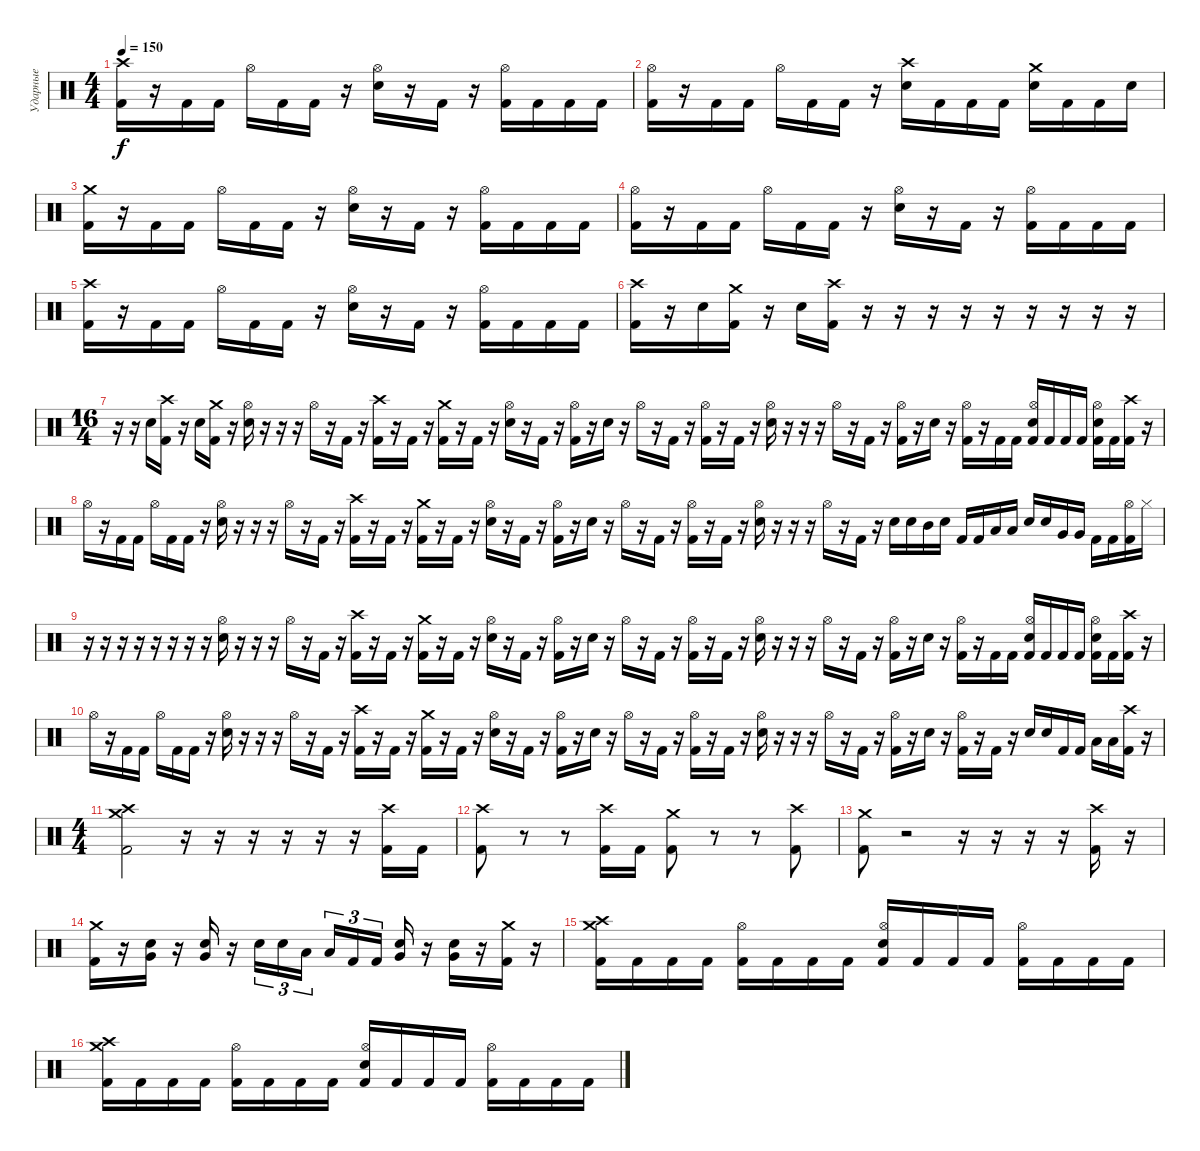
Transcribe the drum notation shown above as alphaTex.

\track ("Ударные" "Ударные") {instrument percussion}
\staff {score}
\articulation defaults
\ts (4 4)
\tempo 150
\clef neutral
\ks c
("Kick (hit) 2" "Crash high (hit)").16{dy f} r.16 "Kick (hit) 2".16 "Kick (hit) 2".16 "Hi-Hat (open)".16 "Kick (hit) 2".16 "Kick (hit) 2".16 r.16 ("Electric Snare (hit)" "Hi-Hat (open)").16 r.16 "Kick (hit) 2".16 r.16 ("Kick (hit) 2" "Hi-Hat (open)").16 "Kick (hit) 2".16 "Kick (hit) 2".16 "Kick (hit) 2".16 |
("Kick (hit) 2" "Hi-Hat (open)").16 r.16 "Kick (hit) 2".16 "Kick (hit) 2".16 "Hi-Hat (open)".16 "Kick (hit) 2".16 "Kick (hit) 2".16 r.16 ("Electric Snare (hit)" "Crash high (hit)").16 "Kick (hit) 2".16 "Kick (hit) 2".16 "Kick (hit) 2".16 ("Electric Snare (hit)" "Crash medium (hit)").16 "Kick (hit) 2".16 "Kick (hit) 2".16 "Electric Snare (hit)".16 |
("Kick (hit) 2" "Crash medium (hit)").16 r.16 "Kick (hit) 2".16 "Kick (hit) 2".16 "Hi-Hat (open)".16 "Kick (hit) 2".16 "Kick (hit) 2".16 r.16 ("Electric Snare (hit)" "Hi-Hat (open)").16 r.16 "Kick (hit) 2".16 r.16 ("Kick (hit) 2" "Hi-Hat (open)").16 "Kick (hit) 2".16 "Kick (hit) 2".16 "Kick (hit) 2".16 |
("Kick (hit) 2" "Hi-Hat (open)").16 r.16 "Kick (hit) 2".16 "Kick (hit) 2".16 "Hi-Hat (open)".16 "Kick (hit) 2".16 "Kick (hit) 2".16 r.16 ("Electric Snare (hit)" "Hi-Hat (open)").16 r.16 "Kick (hit) 2".16 r.16 ("Kick (hit) 2" "Hi-Hat (open)").16 "Kick (hit) 2".16 "Kick (hit) 2".16 "Kick (hit) 2".16 |
("Kick (hit) 2" "Crash high (hit)").16 r.16 "Kick (hit) 2".16 "Kick (hit) 2".16 "Hi-Hat (open)".16 "Kick (hit) 2".16 "Kick (hit) 2".16 r.16 ("Electric Snare (hit)" "Hi-Hat (open)").16 r.16 "Kick (hit) 2".16 r.16 ("Kick (hit) 2" "Hi-Hat (open)").16 "Kick (hit) 2".16 "Kick (hit) 2".16 "Kick (hit) 2".16 |
("Kick (hit) 2" "Crash high (hit)").16 r.16 "Electric Snare (hit)".16 ("Kick (hit) 2" "Crash medium (hit)").16 r.16 "Electric Snare (hit)".16 ("Kick (hit) 2" "Crash high (hit)").16 r.16 r.16 r.16 r.16 r.16 r.16 r.16 r.16 r.16 |
\ts (16 4)
r.16 r.16 "Electric Snare (hit)".16 ("Kick (hit) 2" "Crash high (hit)").16 r.16 "Electric Snare (hit)".16 ("Kick (hit) 2" "Crash medium (hit)").16 r.16 ("Electric Snare (hit)" "Hi-Hat (open)").16 r.16 r.16 r.16 "Hi-Hat (open)".16 r.16 "Kick (hit) 2".16 r.16 ("Kick (hit) 2" "Crash high (hit)").16 r.16 "Kick (hit) 2".16 r.16 ("Kick (hit) 2" "Crash medium (hit)").16 r.16 "Kick (hit) 2".16 r.16 ("Electric Snare (hit)" "Hi-Hat (open)").16 r.16 "Kick (hit) 2".16 r.16 ("Kick (hit) 2" "Hi-Hat (open)").16 r.16 "Electric Snare (hit)".16 r.16 "Hi-Hat (open)".16 r.16 "Kick (hit) 2".16 r.16 ("Kick (hit) 2" "Hi-Hat (open)").16 r.16 "Kick (hit) 2".16 r.16 ("Electric Snare (hit)" "Hi-Hat (open)").16 r.16 r.16 r.16 "Hi-Hat (open)".16 r.16 "Kick (hit) 2".16 r.16 ("Kick (hit) 2" "Hi-Hat (open)").16 r.16 "Electric Snare (hit)".16 r.16 ("Kick (hit) 2" "Hi-Hat (open)").16 r.16 "Kick (hit) 2".16 "Kick (hit) 2".16 ("Kick (hit) 2" "Electric Snare (hit)" "Hi-Hat (open)").16 "Kick (hit) 2".16 "Kick (hit) 2".16 "Kick (hit) 2".16 ("Kick (hit) 2" "Electric Snare (hit)" "Hi-Hat (open)").16 "Kick (hit) 2".16 ("Kick (hit) 2" "Crash high (hit)").16 r.16 |
"Hi-Hat (open)".16 r.16 "Kick (hit) 2".16 "Kick (hit) 2".16 "Hi-Hat (open)".16 "Kick (hit) 2".16 "Kick (hit) 2".16 r.16 ("Electric Snare (hit)" "Hi-Hat (open)").16 r.16 r.16 r.16 "Hi-Hat (open)".16 r.16 "Kick (hit) 2".16 r.16 ("Kick (hit) 2" "Crash high (hit)").16 r.16 "Kick (hit) 2".16 r.16 ("Kick (hit) 2" "Crash medium (hit)").16 r.16 "Kick (hit) 2".16 r.16 ("Electric Snare (hit)" "Hi-Hat (open)").16 r.16 "Kick (hit) 2".16 r.16 ("Kick (hit) 2" "Hi-Hat (open)").16 r.16 "Electric Snare (hit)".16 r.16 "Hi-Hat (open)".16 r.16 "Kick (hit) 2".16 r.16 ("Kick (hit) 2" "Hi-Hat (open)").16 r.16 "Kick (hit) 2".16 r.16 ("Electric Snare (hit)" "Hi-Hat (open)").16 r.16 r.16 r.16 "Hi-Hat (open)".16 r.16 "Kick (hit) 2".16 r.16 "Electric Snare (hit)".16 "Electric Snare (hit)".16 "Mid Tom (hit)".16 "Electric Snare (hit)".16 "Kick (hit) 2".16 "Kick (hit) 2".16 "Low Tom (hit)".16 "Low Tom (hit)".16 "Electric Snare (hit)".16 "Electric Snare (hit)".16 "Very Low Tom (hit)".16 "Very Low Tom (hit)".16 "Kick (hit) 2".16 "Kick (hit) 2".16 ("Kick (hit) 2" "Hi-Hat (open)").16 "Hi-Hat (closed)".16 |
r.16 r.16 r.16 r.16 r.16 r.16 r.16 r.16 ("Electric Snare (hit)" "Hi-Hat (open)").16 r.16 r.16 r.16 "Hi-Hat (open)".16 r.16 "Kick (hit) 2".16 r.16 ("Kick (hit) 2" "Crash high (hit)").16 r.16 "Kick (hit) 2".16 r.16 ("Kick (hit) 2" "Crash medium (hit)").16 r.16 "Kick (hit) 2".16 r.16 ("Electric Snare (hit)" "Hi-Hat (open)").16 r.16 "Kick (hit) 2".16 r.16 ("Kick (hit) 2" "Hi-Hat (open)").16 r.16 "Electric Snare (hit)".16 r.16 "Hi-Hat (open)".16 r.16 "Kick (hit) 2".16 r.16 ("Kick (hit) 2" "Hi-Hat (open)").16 r.16 "Kick (hit) 2".16 r.16 ("Electric Snare (hit)" "Hi-Hat (open)").16 r.16 r.16 r.16 "Hi-Hat (open)".16 r.16 "Kick (hit) 2".16 r.16 ("Kick (hit) 2" "Hi-Hat (open)").16 r.16 "Electric Snare (hit)".16 r.16 ("Kick (hit) 2" "Hi-Hat (open)").16 r.16 "Kick (hit) 2".16 "Kick (hit) 2".16 ("Kick (hit) 2" "Electric Snare (hit)" "Hi-Hat (open)").16 "Kick (hit) 2".16 "Kick (hit) 2".16 "Kick (hit) 2".16 ("Kick (hit) 2" "Electric Snare (hit)" "Hi-Hat (open)").16 "Kick (hit) 2".16 ("Kick (hit) 2" "Crash high (hit)").16 r.16 |
"Hi-Hat (open)".16 r.16 "Kick (hit) 2".16 "Kick (hit) 2".16 "Hi-Hat (open)".16 "Kick (hit) 2".16 "Kick (hit) 2".16 r.16 ("Electric Snare (hit)" "Hi-Hat (open)").16 r.16 r.16 r.16 "Hi-Hat (open)".16 r.16 "Kick (hit) 2".16 r.16 ("Kick (hit) 2" "Crash high (hit)").16 r.16 "Kick (hit) 2".16 r.16 ("Kick (hit) 2" "Crash medium (hit)").16 r.16 "Kick (hit) 2".16 r.16 ("Electric Snare (hit)" "Hi-Hat (open)").16 r.16 "Kick (hit) 2".16 r.16 ("Kick (hit) 2" "Hi-Hat (open)").16 r.16 "Electric Snare (hit)".16 r.16 "Hi-Hat (open)".16 r.16 "Kick (hit) 2".16 r.16 ("Kick (hit) 2" "Hi-Hat (open)").16 r.16 "Kick (hit) 2".16 r.16 ("Electric Snare (hit)" "Hi-Hat (open)").16 r.16 r.16 r.16 "Hi-Hat (open)".16 r.16 "Kick (hit) 2".16 r.16 ("Kick (hit) 2" "Hi-Hat (open)").16 r.16 "Electric Snare (hit)".16 r.16 ("Kick (hit) 2" "Hi-Hat (open)").16 r.16 "Kick (hit) 2".16 r.16 "Electric Snare (hit)".16 "Electric Snare (hit)".16 "Kick (hit) 2".16 "Kick (hit) 2".16 "Low Tom (hit)".16 "Low Tom (hit)".16 ("Kick (hit) 2" "Crash high (hit)").16 r.16 |
\ts (4 4)
("Kick (hit) 2" "Crash high (hit)" "Crash medium (hit)").2 r.16 r.16 r.16 r.16 r.16 r.16 ("Kick (hit) 2" "Crash high (hit)").16 "Kick (hit) 2".16 |
("Kick (hit) 2" "Crash high (hit)").8 r.8 r.8 ("Kick (hit) 2" "Crash high (hit)").16 "Kick (hit) 2".16 ("Kick (hit) 2" "Crash medium (hit)").8 r.8 r.8 ("Kick (hit) 2" "Crash high (hit)").8 |
("Kick (hit) 2" "Crash medium (hit)").8 r.2 r.16 r.16 r.16 r.16 ("Kick (hit) 2" "Crash high (hit)").16 r.16 |
("Kick (hit) 2" "Crash medium (hit)").16 r.16 ("Electric Snare (hit)" "Very Low Tom (hit)").16 r.16 ("Electric Snare (hit)" "Very Low Tom (hit)").16 r.16 "Electric Snare (hit)".16{tu (3 2)} "Electric Snare (hit)".16{tu (3 2)} "Low Tom (hit)".16{tu (3 2)} "Low Tom (hit)".16{tu (3 2)} "Kick (hit) 2".16{tu (3 2)} "Kick (hit) 2".16{tu (3 2)} ("Electric Snare (hit)" "Very Low Tom (hit)").16 r.16 ("Electric Snare (hit)" "Very Low Tom (hit)").16 r.16 ("Kick (hit) 2" "Crash medium (hit)").16 r.16 |
("Kick (hit) 2" "Crash high (hit)" "Crash medium (hit)").16 "Kick (hit) 2".16 "Kick (hit) 2".16 "Kick (hit) 2".16 ("Kick (hit) 2" "Hi-Hat (open)").16 "Kick (hit) 2".16 "Kick (hit) 2".16 "Kick (hit) 2".16 ("Kick (hit) 2" "Electric Snare (hit)" "Hi-Hat (open)").16 "Kick (hit) 2".16 "Kick (hit) 2".16 "Kick (hit) 2".16 ("Kick (hit) 2" "Hi-Hat (open)").16 "Kick (hit) 2".16 "Kick (hit) 2".16 "Kick (hit) 2".16 |
("Kick (hit) 2" "Crash high (hit)" "Crash medium (hit)").16 "Kick (hit) 2".16 "Kick (hit) 2".16 "Kick (hit) 2".16 ("Kick (hit) 2" "Hi-Hat (open)").16 "Kick (hit) 2".16 "Kick (hit) 2".16 "Kick (hit) 2".16 ("Kick (hit) 2" "Electric Snare (hit)" "Hi-Hat (open)").16 "Kick (hit) 2".16 "Kick (hit) 2".16 "Kick (hit) 2".16 ("Kick (hit) 2" "Hi-Hat (open)").16 "Kick (hit) 2".16 "Kick (hit) 2".16 "Kick (hit) 2".16
